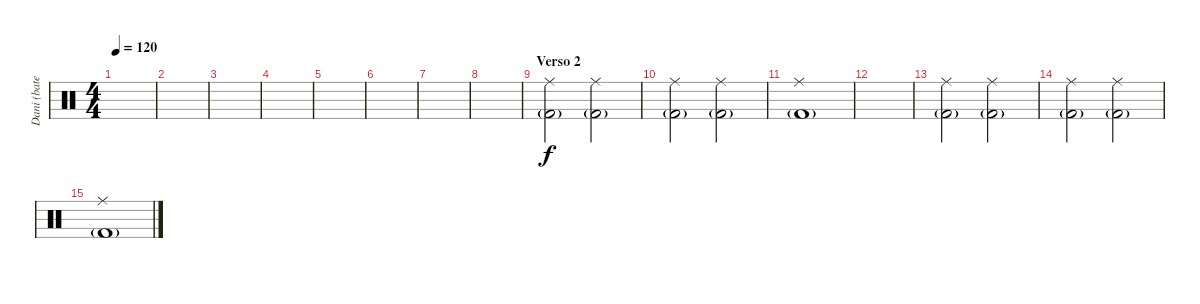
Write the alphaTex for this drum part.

\track ("Dani (batería)" "Dani (bate") {instrument percussion}
\staff {score}
\articulation defaults
\ts (4 4)
\tempo 120
\clef neutral
\ks c
|
|
|
|
|
|
|
|
\section ("" "Verso 2")
("Ride (middle)" "Kick (hit) 2"{g}).2 ("Ride (middle)" "Kick (hit) 2"{g}).2 |
("Ride (middle)" "Kick (hit) 2"{g}).2 ("Ride (middle)" "Kick (hit) 2"{g}).2 |
("Ride (middle)" "Kick (hit) 2"{g}).1 |
|
("Ride (middle)" "Kick (hit) 2"{g}).2 ("Ride (middle)" "Kick (hit) 2"{g}).2 |
("Ride (middle)" "Kick (hit) 2"{g}).2 ("Ride (middle)" "Kick (hit) 2"{g}).2 |
("Ride (middle)" "Kick (hit) 2"{g}).1
